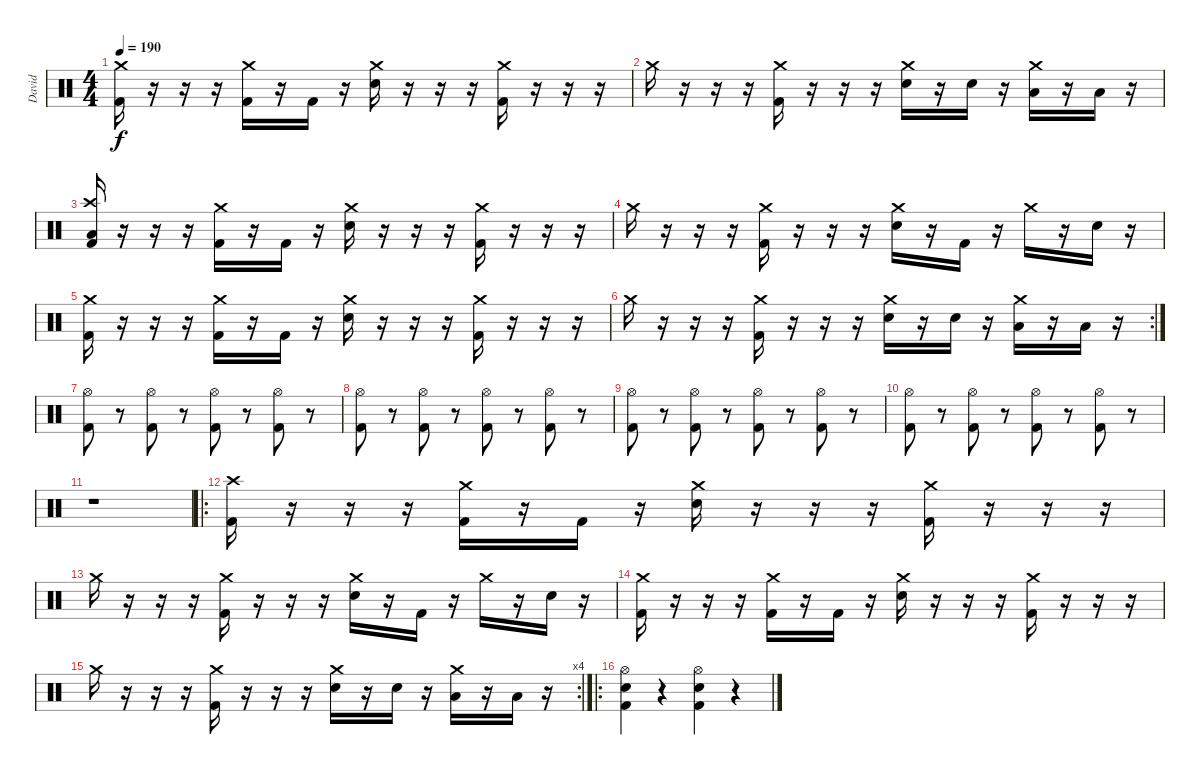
\track ("David" "David") {instrument percussion}
\staff {score}
\articulation defaults
\ts (4 4)
\tempo 190
\clef neutral
\ks c
("Crash medium (hit)" "Kick (hit) 2").16{dy f} r.16 r.16 r.16 ("Crash medium (hit)" "Kick (hit) 2").16 r.16 "Kick (hit) 2".16 r.16 ("Crash medium (hit)" "Electric Snare (hit)").16 r.16 r.16 r.16 ("Crash medium (hit)" "Kick (hit) 2").16 r.16 r.16 r.16 |
"Crash medium (hit)".16 r.16 r.16 r.16 ("Crash medium (hit)" "Kick (hit) 2").16 r.16 r.16 r.16 ("Crash medium (hit)" "Electric Snare (hit)").16 r.16 "Electric Snare (hit)".16 r.16 ("Crash medium (hit)" "Low Tom (hit)").16 r.16 "Low Tom (hit)".16 r.16 |
("Crash high (hit)" "Low Floor Tom (hit)" "Kick (hit) 2").16 r.16 r.16 r.16 ("Crash medium (hit)" "Kick (hit) 2").16 r.16 "Kick (hit) 2".16 r.16 ("Crash medium (hit)" "Electric Snare (hit)").16 r.16 r.16 r.16 ("Crash medium (hit)" "Kick (hit) 2").16 r.16 r.16 r.16 |
"Crash medium (hit)".16 r.16 r.16 r.16 ("Crash medium (hit)" "Kick (hit) 2").16 r.16 r.16 r.16 ("Crash medium (hit)" "Electric Snare (hit)").16 r.16 "Kick (hit) 2".16 r.16 "Crash medium (hit)".16 r.16 "Electric Snare (hit)".16 r.16 |
("Crash medium (hit)" "Kick (hit) 2").16 r.16 r.16 r.16 ("Crash medium (hit)" "Kick (hit) 2").16 r.16 "Kick (hit) 2".16 r.16 ("Crash medium (hit)" "Electric Snare (hit)").16 r.16 r.16 r.16 ("Crash medium (hit)" "Kick (hit) 2").16 r.16 r.16 r.16 |
\rc 2 "Crash medium (hit)".16
r.16 r.16 r.16 ("Crash medium (hit)" "Kick (hit) 2").16 r.16 r.16 r.16 ("Crash medium (hit)" "Electric Snare (hit)").16 r.16 "Electric Snare (hit)".16 r.16 ("Crash medium (hit)" "Low Tom (hit)").16 r.16 "Low Tom (hit)".16 r.16 |
("Hi-Hat (open)" "Kick (hit) 2").8 r.8 ("Hi-Hat (open)" "Kick (hit) 2").8 r.8 ("Hi-Hat (open)" "Kick (hit) 2").8 r.8 ("Hi-Hat (open)" "Kick (hit) 2").8 r.8 |
("Hi-Hat (open)" "Kick (hit) 2").8 r.8 ("Hi-Hat (open)" "Kick (hit) 2").8 r.8 ("Hi-Hat (open)" "Kick (hit) 2").8 r.8 ("Hi-Hat (open)" "Kick (hit) 2").8 r.8 |
("Hi-Hat (open)" "Kick (hit) 2").8 r.8 ("Hi-Hat (open)" "Kick (hit) 2").8 r.8 ("Hi-Hat (open)" "Kick (hit) 2").8 r.8 ("Hi-Hat (open)" "Kick (hit) 2").8 r.8 |
("Hi-Hat (open)" "Kick (hit) 2").8 r.8 ("Hi-Hat (open)" "Kick (hit) 2").8 r.8 ("Hi-Hat (open)" "Kick (hit) 2").8 r.8 ("Hi-Hat (open)" "Kick (hit) 2").8 r.8 |
r.1 |
\ro
("Crash high (hit)" "Kick (hit) 2").16 r.16 r.16 r.16 ("Crash medium (hit)" "Kick (hit) 2").16 r.16 "Kick (hit) 2".16 r.16 ("Crash medium (hit)" "Electric Snare (hit)").16 r.16 r.16 r.16 ("Crash medium (hit)" "Kick (hit) 2").16 r.16 r.16 r.16 |
"Crash medium (hit)".16 r.16 r.16 r.16 ("Crash medium (hit)" "Kick (hit) 2").16 r.16 r.16 r.16 ("Crash medium (hit)" "Electric Snare (hit)").16 r.16 "Kick (hit) 2".16 r.16 "Crash medium (hit)".16 r.16 "Electric Snare (hit)".16 r.16 |
("Crash medium (hit)" "Kick (hit) 2").16 r.16 r.16 r.16 ("Crash medium (hit)" "Kick (hit) 2").16 r.16 "Kick (hit) 2".16 r.16 ("Crash medium (hit)" "Electric Snare (hit)").16 r.16 r.16 r.16 ("Crash medium (hit)" "Kick (hit) 2").16 r.16 r.16 r.16 |
\rc 4 "Crash medium (hit)".16
r.16 r.16 r.16 ("Crash medium (hit)" "Kick (hit) 2").16 r.16 r.16 r.16 ("Crash medium (hit)" "Electric Snare (hit)").16 r.16 "Electric Snare (hit)".16 r.16 ("Crash medium (hit)" "Low Tom (hit)").16 r.16 "Low Tom (hit)".16 r.16 |
\ro
("Hi-Hat (open)" "Electric Snare (hit)" "Kick (hit) 2").4 r.4 ("Hi-Hat (open)" "Electric Snare (hit)" "Kick (hit) 2").4 r.4
